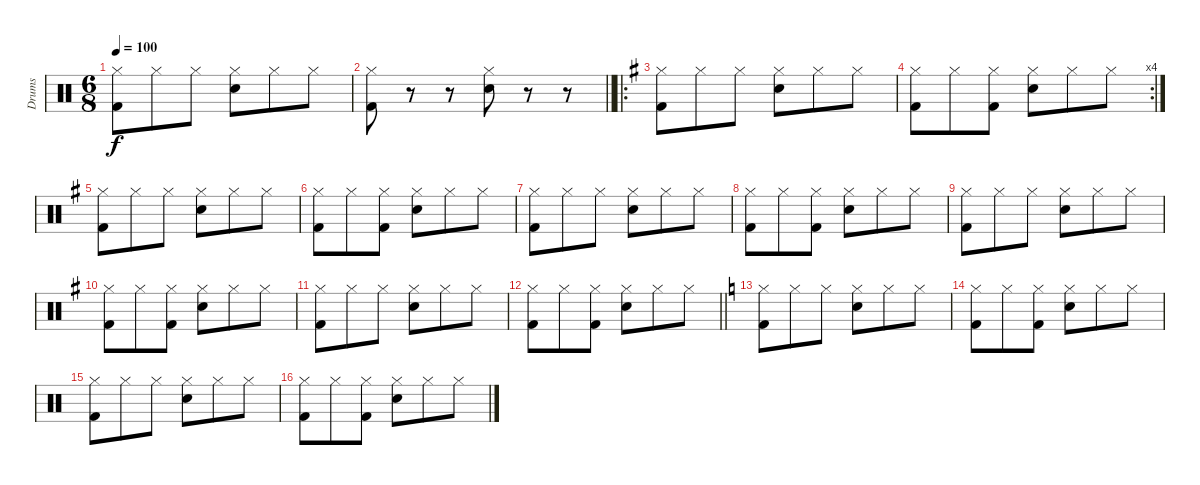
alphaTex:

\track ("Drums" "Drums") {instrument percussion}
\staff {score}
\articulation defaults
\ts (6 8)
\tempo 100
\clef neutral
\ks c
("Hi-Hat (closed)" "Kick (hit) 2").8{dy f} "Hi-Hat (closed)".8 "Hi-Hat (closed)".8 ("Hi-Hat (closed)" "Electric Snare (hit)").8 "Hi-Hat (closed)".8 "Hi-Hat (closed)".8 |
\barLineRight lightlight
("Hi-Hat (closed)" "Kick (hit) 2").8 r.8 r.8 ("Hi-Hat (closed)" "Electric Snare (hit)").8 r.8 r.8 |
\ro
\ks g
("Hi-Hat (closed)" "Kick (hit) 2").8 "Hi-Hat (closed)".8 "Hi-Hat (closed)".8 ("Hi-Hat (closed)" "Electric Snare (hit)").8 "Hi-Hat (closed)".8 "Hi-Hat (closed)".8 |
\rc 4
("Hi-Hat (closed)" "Kick (hit) 2").8 "Hi-Hat (closed)".8 ("Hi-Hat (closed)" "Kick (hit) 2").8 ("Hi-Hat (closed)" "Electric Snare (hit)").8 "Hi-Hat (closed)".8 "Hi-Hat (closed)".8 |
("Hi-Hat (closed)" "Kick (hit) 2").8 "Hi-Hat (closed)".8 "Hi-Hat (closed)".8 ("Hi-Hat (closed)" "Electric Snare (hit)").8 "Hi-Hat (closed)".8 "Hi-Hat (closed)".8 |
("Hi-Hat (closed)" "Kick (hit) 2").8 "Hi-Hat (closed)".8 ("Hi-Hat (closed)" "Kick (hit) 2").8 ("Hi-Hat (closed)" "Electric Snare (hit)").8 "Hi-Hat (closed)".8 "Hi-Hat (closed)".8 |
("Hi-Hat (closed)" "Kick (hit) 2").8 "Hi-Hat (closed)".8 "Hi-Hat (closed)".8 ("Hi-Hat (closed)" "Electric Snare (hit)").8 "Hi-Hat (closed)".8 "Hi-Hat (closed)".8 |
("Hi-Hat (closed)" "Kick (hit) 2").8 "Hi-Hat (closed)".8 ("Hi-Hat (closed)" "Kick (hit) 2").8 ("Hi-Hat (closed)" "Electric Snare (hit)").8 "Hi-Hat (closed)".8 "Hi-Hat (closed)".8 |
("Hi-Hat (closed)" "Kick (hit) 2").8 "Hi-Hat (closed)".8 "Hi-Hat (closed)".8 ("Hi-Hat (closed)" "Electric Snare (hit)").8 "Hi-Hat (closed)".8 "Hi-Hat (closed)".8 |
("Hi-Hat (closed)" "Kick (hit) 2").8 "Hi-Hat (closed)".8 ("Hi-Hat (closed)" "Kick (hit) 2").8 ("Hi-Hat (closed)" "Electric Snare (hit)").8 "Hi-Hat (closed)".8 "Hi-Hat (closed)".8 |
("Hi-Hat (closed)" "Kick (hit) 2").8 "Hi-Hat (closed)".8 "Hi-Hat (closed)".8 ("Hi-Hat (closed)" "Electric Snare (hit)").8 "Hi-Hat (closed)".8 "Hi-Hat (closed)".8 |
\barLineRight lightlight
("Hi-Hat (closed)" "Kick (hit) 2").8 "Hi-Hat (closed)".8 ("Hi-Hat (closed)" "Kick (hit) 2").8 ("Hi-Hat (closed)" "Electric Snare (hit)").8 "Hi-Hat (closed)".8 "Hi-Hat (closed)".8 |
\ks c
("Hi-Hat (closed)" "Kick (hit) 2").8 "Hi-Hat (closed)".8 "Hi-Hat (closed)".8 ("Hi-Hat (closed)" "Electric Snare (hit)").8 "Hi-Hat (closed)".8 "Hi-Hat (closed)".8 |
("Hi-Hat (closed)" "Kick (hit) 2").8 "Hi-Hat (closed)".8 ("Hi-Hat (closed)" "Kick (hit) 2").8 ("Hi-Hat (closed)" "Electric Snare (hit)").8 "Hi-Hat (closed)".8 "Hi-Hat (closed)".8 |
("Hi-Hat (closed)" "Kick (hit) 2").8 "Hi-Hat (closed)".8 "Hi-Hat (closed)".8 ("Hi-Hat (closed)" "Electric Snare (hit)").8 "Hi-Hat (closed)".8 "Hi-Hat (closed)".8 |
("Hi-Hat (closed)" "Kick (hit) 2").8 "Hi-Hat (closed)".8 ("Hi-Hat (closed)" "Kick (hit) 2").8 ("Hi-Hat (closed)" "Electric Snare (hit)").8 "Hi-Hat (closed)".8 "Hi-Hat (closed)".8
